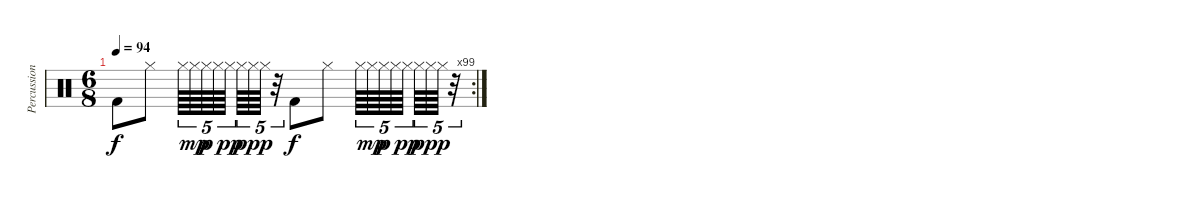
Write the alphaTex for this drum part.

\track ("Percussion" "Percussion") {instrument percussion}
\staff {score}
\articulation defaults
\rc 99
\ts (6 8)
\tempo 94
\clef neutral
\ks c "Kick (hit) 2".8{dy f} "Hi-Hat (closed)".8 "Hi-Hat (closed)".64{tu (5 4)} "Hi-Hat (closed)".64{tu (5 4) dy mp} "Hi-Hat (closed)".64{tu (5 4) dy p} "Hi-Hat (closed)".64{tu (5 4)} "Hi-Hat (closed)".64{tu (5 4) dy pp beam splitsecondary} "Hi-Hat (closed)".64{tu (5 4)} "Hi-Hat (closed)".64{tu (5 4) dy ppp} "Hi-Hat (closed)".64{tu (5 4)}
r.32{tu (5 4)} "Kick (hit) 2".8{dy f} "Hi-Hat (closed)".8 "Hi-Hat (closed)".64{tu (5 4)} "Hi-Hat (closed)".64{tu (5 4) dy mp} "Hi-Hat (closed)".64{tu (5 4) dy p} "Hi-Hat (closed)".64{tu (5 4)} "Hi-Hat (closed)".64{tu (5 4) dy pp beam splitsecondary} "Hi-Hat (closed)".64{tu (5 4)} "Hi-Hat (closed)".64{tu (5 4) dy ppp} "Hi-Hat (closed)".64{tu (5 4)} r.32{tu (5 4)}
